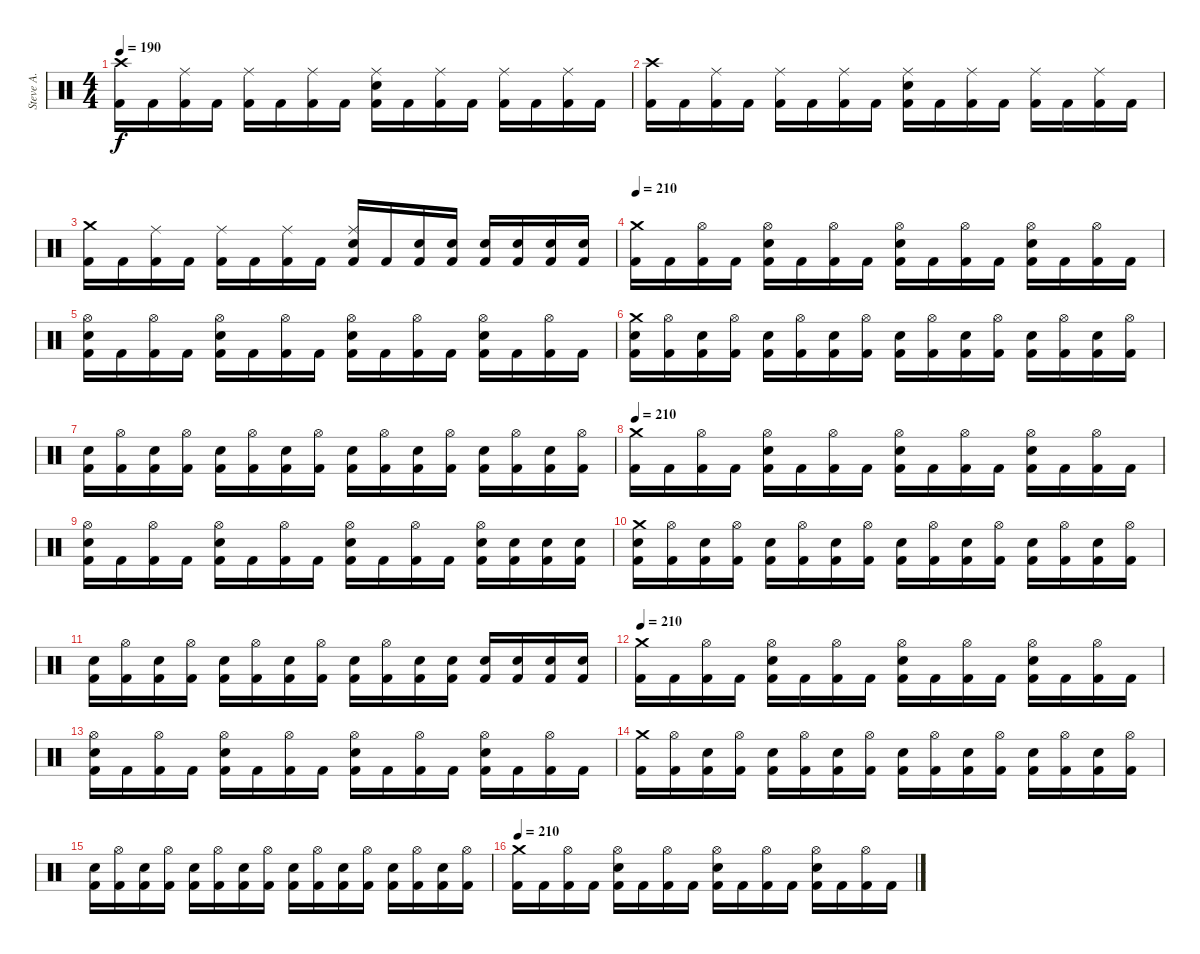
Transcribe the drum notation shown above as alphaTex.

\track ("Steve A." "Steve A.") {instrument percussion}
\staff {score}
\articulation defaults
\ts (4 4)
\tempo 190
\clef neutral
\ks c
("Kick (hit) 2" "Crash high (hit)").16{dy f} "Kick (hit) 2".16 ("Kick (hit) 2" "Ride (middle)").16 "Kick (hit) 2".16 ("Kick (hit) 2" "Ride (middle)").16 "Kick (hit) 2".16 ("Kick (hit) 2" "Ride (middle)").16 "Kick (hit) 2".16 ("Kick (hit) 2" "Ride (middle)" "Electric Snare (hit)").16 "Kick (hit) 2".16 ("Kick (hit) 2" "Ride (middle)").16 "Kick (hit) 2".16 ("Kick (hit) 2" "Ride (middle)").16 "Kick (hit) 2".16 ("Kick (hit) 2" "Ride (middle)").16 "Kick (hit) 2".16 |
("Kick (hit) 2" "Crash high (hit)").16 "Kick (hit) 2".16 ("Kick (hit) 2" "Ride (middle)").16 "Kick (hit) 2".16 ("Kick (hit) 2" "Ride (middle)").16 "Kick (hit) 2".16 ("Kick (hit) 2" "Ride (middle)").16 "Kick (hit) 2".16 ("Kick (hit) 2" "Ride (middle)" "Electric Snare (hit)").16 "Kick (hit) 2".16 ("Kick (hit) 2" "Ride (middle)").16 "Kick (hit) 2".16 ("Kick (hit) 2" "Ride (middle)").16 "Kick (hit) 2".16 ("Kick (hit) 2" "Ride (middle)").16 "Kick (hit) 2".16 |
("Kick (hit) 2" "Crash medium (hit)").16 "Kick (hit) 2".16 ("Kick (hit) 2" "Ride (middle)").16 "Kick (hit) 2".16 ("Kick (hit) 2" "Ride (middle)").16 "Kick (hit) 2".16 ("Kick (hit) 2" "Ride (middle)").16 "Kick (hit) 2".16 ("Kick (hit) 2" "Ride (middle)" "Electric Snare (hit)").16 "Kick (hit) 2".16 ("Kick (hit) 2" "Electric Snare (hit)").16 ("Kick (hit) 2" "Electric Snare (hit)").16 ("Kick (hit) 2" "Electric Snare (hit)").16 ("Kick (hit) 2" "Electric Snare (hit)").16 ("Kick (hit) 2" "Electric Snare (hit)").16 ("Kick (hit) 2" "Electric Snare (hit)").16 |
\tempo 210
("Kick (hit) 2" "Crash medium (hit)").16 "Kick (hit) 2".16 ("Kick (hit) 2" "Hi-Hat (open)").16 "Kick (hit) 2".16 ("Kick (hit) 2" "Hi-Hat (open)" "Electric Snare (hit)").16 "Kick (hit) 2".16 ("Kick (hit) 2" "Hi-Hat (open)").16 "Kick (hit) 2".16 ("Kick (hit) 2" "Hi-Hat (open)" "Electric Snare (hit)").16 "Kick (hit) 2".16 ("Kick (hit) 2" "Hi-Hat (open)").16 "Kick (hit) 2".16 ("Kick (hit) 2" "Hi-Hat (open)" "Electric Snare (hit)").16 "Kick (hit) 2".16 ("Kick (hit) 2" "Hi-Hat (open)").16 "Kick (hit) 2".16 |
("Kick (hit) 2" "Hi-Hat (open)" "Electric Snare (hit)").16 "Kick (hit) 2".16 ("Kick (hit) 2" "Hi-Hat (open)").16 "Kick (hit) 2".16 ("Kick (hit) 2" "Hi-Hat (open)" "Electric Snare (hit)").16 "Kick (hit) 2".16 ("Kick (hit) 2" "Hi-Hat (open)").16 "Kick (hit) 2".16 ("Kick (hit) 2" "Hi-Hat (open)" "Electric Snare (hit)").16 "Kick (hit) 2".16 ("Kick (hit) 2" "Hi-Hat (open)").16 "Kick (hit) 2".16 ("Kick (hit) 2" "Hi-Hat (open)" "Electric Snare (hit)").16 "Kick (hit) 2".16 ("Kick (hit) 2" "Hi-Hat (open)").16 "Kick (hit) 2".16 |
("Kick (hit) 2" "Electric Snare (hit)" "Crash medium (hit)").16 ("Kick (hit) 2" "Hi-Hat (open)").16 ("Kick (hit) 2" "Electric Snare (hit)").16 ("Kick (hit) 2" "Hi-Hat (open)").16 ("Kick (hit) 2" "Electric Snare (hit)").16 ("Kick (hit) 2" "Hi-Hat (open)").16 ("Kick (hit) 2" "Electric Snare (hit)").16 ("Kick (hit) 2" "Hi-Hat (open)").16 ("Kick (hit) 2" "Electric Snare (hit)").16 ("Kick (hit) 2" "Hi-Hat (open)").16 ("Kick (hit) 2" "Electric Snare (hit)").16 ("Kick (hit) 2" "Hi-Hat (open)").16 ("Kick (hit) 2" "Electric Snare (hit)").16 ("Kick (hit) 2" "Hi-Hat (open)").16 ("Kick (hit) 2" "Electric Snare (hit)").16 ("Kick (hit) 2" "Hi-Hat (open)").16 |
("Kick (hit) 2" "Electric Snare (hit)").16 ("Kick (hit) 2" "Hi-Hat (open)").16 ("Kick (hit) 2" "Electric Snare (hit)").16 ("Kick (hit) 2" "Hi-Hat (open)").16 ("Kick (hit) 2" "Electric Snare (hit)").16 ("Kick (hit) 2" "Hi-Hat (open)").16 ("Kick (hit) 2" "Electric Snare (hit)").16 ("Kick (hit) 2" "Hi-Hat (open)").16 ("Kick (hit) 2" "Electric Snare (hit)").16 ("Kick (hit) 2" "Hi-Hat (open)").16 ("Kick (hit) 2" "Electric Snare (hit)").16 ("Kick (hit) 2" "Hi-Hat (open)").16 ("Kick (hit) 2" "Electric Snare (hit)").16 ("Kick (hit) 2" "Hi-Hat (open)").16 ("Kick (hit) 2" "Electric Snare (hit)").16 ("Kick (hit) 2" "Hi-Hat (open)").16 |
\tempo 210
("Kick (hit) 2" "Crash medium (hit)").16 "Kick (hit) 2".16 ("Kick (hit) 2" "Hi-Hat (open)").16 "Kick (hit) 2".16 ("Kick (hit) 2" "Hi-Hat (open)" "Electric Snare (hit)").16 "Kick (hit) 2".16 ("Kick (hit) 2" "Hi-Hat (open)").16 "Kick (hit) 2".16 ("Kick (hit) 2" "Hi-Hat (open)" "Electric Snare (hit)").16 "Kick (hit) 2".16 ("Kick (hit) 2" "Hi-Hat (open)").16 "Kick (hit) 2".16 ("Kick (hit) 2" "Hi-Hat (open)" "Electric Snare (hit)").16 "Kick (hit) 2".16 ("Kick (hit) 2" "Hi-Hat (open)").16 "Kick (hit) 2".16 |
("Kick (hit) 2" "Hi-Hat (open)" "Electric Snare (hit)").16 "Kick (hit) 2".16 ("Kick (hit) 2" "Hi-Hat (open)").16 "Kick (hit) 2".16 ("Kick (hit) 2" "Hi-Hat (open)" "Electric Snare (hit)").16 "Kick (hit) 2".16 ("Kick (hit) 2" "Hi-Hat (open)").16 "Kick (hit) 2".16 ("Kick (hit) 2" "Hi-Hat (open)" "Electric Snare (hit)").16 "Kick (hit) 2".16 ("Kick (hit) 2" "Hi-Hat (open)").16 "Kick (hit) 2".16 ("Kick (hit) 2" "Hi-Hat (open)" "Electric Snare (hit)").16 ("Kick (hit) 2" "Electric Snare (hit)").16 ("Kick (hit) 2" "Electric Snare (hit)").16 ("Kick (hit) 2" "Electric Snare (hit)").16 |
("Kick (hit) 2" "Electric Snare (hit)" "Crash medium (hit)").16 ("Kick (hit) 2" "Hi-Hat (open)").16 ("Kick (hit) 2" "Electric Snare (hit)").16 ("Kick (hit) 2" "Hi-Hat (open)").16 ("Kick (hit) 2" "Electric Snare (hit)").16 ("Kick (hit) 2" "Hi-Hat (open)").16 ("Kick (hit) 2" "Electric Snare (hit)").16 ("Kick (hit) 2" "Hi-Hat (open)").16 ("Kick (hit) 2" "Electric Snare (hit)").16 ("Kick (hit) 2" "Hi-Hat (open)").16 ("Kick (hit) 2" "Electric Snare (hit)").16 ("Kick (hit) 2" "Hi-Hat (open)").16 ("Kick (hit) 2" "Electric Snare (hit)").16 ("Kick (hit) 2" "Hi-Hat (open)").16 ("Kick (hit) 2" "Electric Snare (hit)").16 ("Kick (hit) 2" "Hi-Hat (open)").16 |
("Kick (hit) 2" "Electric Snare (hit)").16 ("Kick (hit) 2" "Hi-Hat (open)").16 ("Kick (hit) 2" "Electric Snare (hit)").16 ("Kick (hit) 2" "Hi-Hat (open)").16 ("Kick (hit) 2" "Electric Snare (hit)").16 ("Kick (hit) 2" "Hi-Hat (open)").16 ("Kick (hit) 2" "Electric Snare (hit)").16 ("Kick (hit) 2" "Hi-Hat (open)").16 ("Kick (hit) 2" "Electric Snare (hit)").16 ("Kick (hit) 2" "Hi-Hat (open)").16 ("Kick (hit) 2" "Electric Snare (hit)").16 ("Kick (hit) 2" "Electric Snare (hit)").16 ("Kick (hit) 2" "Electric Snare (hit)").16 ("Kick (hit) 2" "Electric Snare (hit)").16 ("Kick (hit) 2" "Electric Snare (hit)").16 ("Kick (hit) 2" "Electric Snare (hit)").16 |
\tempo 210
("Kick (hit) 2" "Crash medium (hit)").16 "Kick (hit) 2".16 ("Kick (hit) 2" "Hi-Hat (open)").16 "Kick (hit) 2".16 ("Kick (hit) 2" "Hi-Hat (open)" "Electric Snare (hit)").16 "Kick (hit) 2".16 ("Kick (hit) 2" "Hi-Hat (open)").16 "Kick (hit) 2".16 ("Kick (hit) 2" "Hi-Hat (open)" "Electric Snare (hit)").16 "Kick (hit) 2".16 ("Kick (hit) 2" "Hi-Hat (open)").16 "Kick (hit) 2".16 ("Kick (hit) 2" "Hi-Hat (open)" "Electric Snare (hit)").16 "Kick (hit) 2".16 ("Kick (hit) 2" "Hi-Hat (open)").16 "Kick (hit) 2".16 |
("Kick (hit) 2" "Hi-Hat (open)" "Electric Snare (hit)").16 "Kick (hit) 2".16 ("Kick (hit) 2" "Hi-Hat (open)").16 "Kick (hit) 2".16 ("Kick (hit) 2" "Hi-Hat (open)" "Electric Snare (hit)").16 "Kick (hit) 2".16 ("Kick (hit) 2" "Hi-Hat (open)").16 "Kick (hit) 2".16 ("Kick (hit) 2" "Hi-Hat (open)" "Electric Snare (hit)").16 "Kick (hit) 2".16 ("Kick (hit) 2" "Hi-Hat (open)").16 "Kick (hit) 2".16 ("Kick (hit) 2" "Hi-Hat (open)" "Electric Snare (hit)").16 "Kick (hit) 2".16 ("Kick (hit) 2" "Hi-Hat (open)").16 "Kick (hit) 2".16 |
("Kick (hit) 2" "Crash medium (hit)").16 ("Kick (hit) 2" "Hi-Hat (open)").16 ("Kick (hit) 2" "Electric Snare (hit)").16 ("Kick (hit) 2" "Hi-Hat (open)").16 ("Kick (hit) 2" "Electric Snare (hit)").16 ("Kick (hit) 2" "Hi-Hat (open)").16 ("Kick (hit) 2" "Electric Snare (hit)").16 ("Kick (hit) 2" "Hi-Hat (open)").16 ("Kick (hit) 2" "Electric Snare (hit)").16 ("Kick (hit) 2" "Hi-Hat (open)").16 ("Kick (hit) 2" "Electric Snare (hit)").16 ("Kick (hit) 2" "Hi-Hat (open)").16 ("Kick (hit) 2" "Electric Snare (hit)").16 ("Kick (hit) 2" "Hi-Hat (open)").16 ("Kick (hit) 2" "Electric Snare (hit)").16 ("Kick (hit) 2" "Hi-Hat (open)").16 |
("Kick (hit) 2" "Electric Snare (hit)").16 ("Kick (hit) 2" "Hi-Hat (open)").16 ("Kick (hit) 2" "Electric Snare (hit)").16 ("Kick (hit) 2" "Hi-Hat (open)").16 ("Kick (hit) 2" "Electric Snare (hit)").16 ("Kick (hit) 2" "Hi-Hat (open)").16 ("Kick (hit) 2" "Electric Snare (hit)").16 ("Kick (hit) 2" "Hi-Hat (open)").16 ("Kick (hit) 2" "Electric Snare (hit)").16 ("Kick (hit) 2" "Hi-Hat (open)").16 ("Kick (hit) 2" "Electric Snare (hit)").16 ("Kick (hit) 2" "Hi-Hat (open)").16 ("Kick (hit) 2" "Electric Snare (hit)").16 ("Kick (hit) 2" "Hi-Hat (open)").16 ("Kick (hit) 2" "Electric Snare (hit)").16 ("Kick (hit) 2" "Hi-Hat (open)").16 |
\tempo 210
("Kick (hit) 2" "Crash medium (hit)").16 "Kick (hit) 2".16 ("Kick (hit) 2" "Hi-Hat (open)").16 "Kick (hit) 2".16 ("Kick (hit) 2" "Hi-Hat (open)" "Electric Snare (hit)").16 "Kick (hit) 2".16 ("Kick (hit) 2" "Hi-Hat (open)").16 "Kick (hit) 2".16 ("Kick (hit) 2" "Hi-Hat (open)" "Electric Snare (hit)").16 "Kick (hit) 2".16 ("Kick (hit) 2" "Hi-Hat (open)").16 "Kick (hit) 2".16 ("Kick (hit) 2" "Hi-Hat (open)" "Electric Snare (hit)").16 "Kick (hit) 2".16 ("Kick (hit) 2" "Hi-Hat (open)").16 "Kick (hit) 2".16
